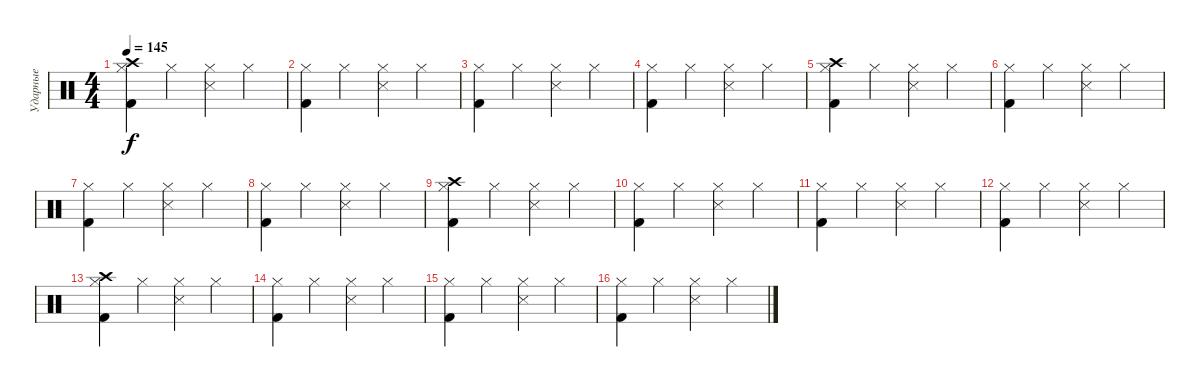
\track ("Ударные" "Ударные") {instrument percussion}
\staff {score}
\articulation defaults
\ts (4 4)
\tempo 145
\clef neutral
\ks c
("Kick (hit) 2" "Crash high (hit)" "Hi-Hat (closed)").4{dy f} "Hi-Hat (closed)".4 ("Hi-Hat (closed)" "Snare (side stick) 3").4 "Hi-Hat (closed)".4 |
("Kick (hit) 2" "Hi-Hat (closed)").4 "Hi-Hat (closed)".4 ("Snare (side stick) 3" "Hi-Hat (closed)").4 "Hi-Hat (closed)".4 |
("Kick (hit) 2" "Hi-Hat (closed)").4 "Hi-Hat (closed)".4 ("Hi-Hat (closed)" "Snare (side stick) 3").4 "Hi-Hat (closed)".4 |
("Kick (hit) 2" "Hi-Hat (closed)").4 "Hi-Hat (closed)".4 ("Hi-Hat (closed)" "Snare (side stick) 3").4 "Hi-Hat (closed)".4 |
("Hi-Hat (closed)" "Crash high (hit)" "Kick (hit) 2").4 "Hi-Hat (closed)".4 ("Hi-Hat (closed)" "Snare (side stick) 3").4 "Hi-Hat (closed)".4 |
("Kick (hit) 2" "Hi-Hat (closed)").4 "Hi-Hat (closed)".4 ("Hi-Hat (closed)" "Snare (side stick) 3").4 "Hi-Hat (closed)".4 |
("Hi-Hat (closed)" "Kick (hit) 2").4 "Hi-Hat (closed)".4 ("Snare (side stick) 3" "Hi-Hat (closed)").4 "Hi-Hat (closed)".4 |
("Kick (hit) 2" "Hi-Hat (closed)").4 "Hi-Hat (closed)".4 ("Snare (side stick) 3" "Hi-Hat (closed)").4 "Hi-Hat (closed)".4 |
("Crash high (hit)" "Kick (hit) 2" "Hi-Hat (closed)").4 "Hi-Hat (closed)".4 ("Snare (side stick) 3" "Hi-Hat (closed)").4 "Hi-Hat (closed)".4 |
("Kick (hit) 2" "Hi-Hat (closed)").4 "Hi-Hat (closed)".4 ("Hi-Hat (closed)" "Snare (side stick) 3").4 "Hi-Hat (closed)".4 |
("Hi-Hat (closed)" "Kick (hit) 2").4 "Hi-Hat (closed)".4 ("Hi-Hat (closed)" "Snare (side stick) 3").4 "Hi-Hat (closed)".4 |
("Kick (hit) 2" "Hi-Hat (closed)").4 "Hi-Hat (closed)".4 ("Snare (side stick) 3" "Hi-Hat (closed)").4 "Hi-Hat (closed)".4 |
("Crash high (hit)" "Hi-Hat (closed)" "Kick (hit) 2").4 "Hi-Hat (closed)".4 ("Snare (side stick) 3" "Hi-Hat (closed)").4 "Hi-Hat (closed)".4 |
("Kick (hit) 2" "Hi-Hat (closed)").4 "Hi-Hat (closed)".4 ("Hi-Hat (closed)" "Snare (side stick) 3").4 "Hi-Hat (closed)".4 |
("Kick (hit) 2" "Hi-Hat (closed)").4 "Hi-Hat (closed)".4 ("Hi-Hat (closed)" "Snare (side stick) 3").4 "Hi-Hat (closed)".4 |
("Kick (hit) 2" "Hi-Hat (closed)").4 "Hi-Hat (closed)".4 ("Snare (side stick) 3" "Hi-Hat (closed)").4 "Hi-Hat (closed)".4
